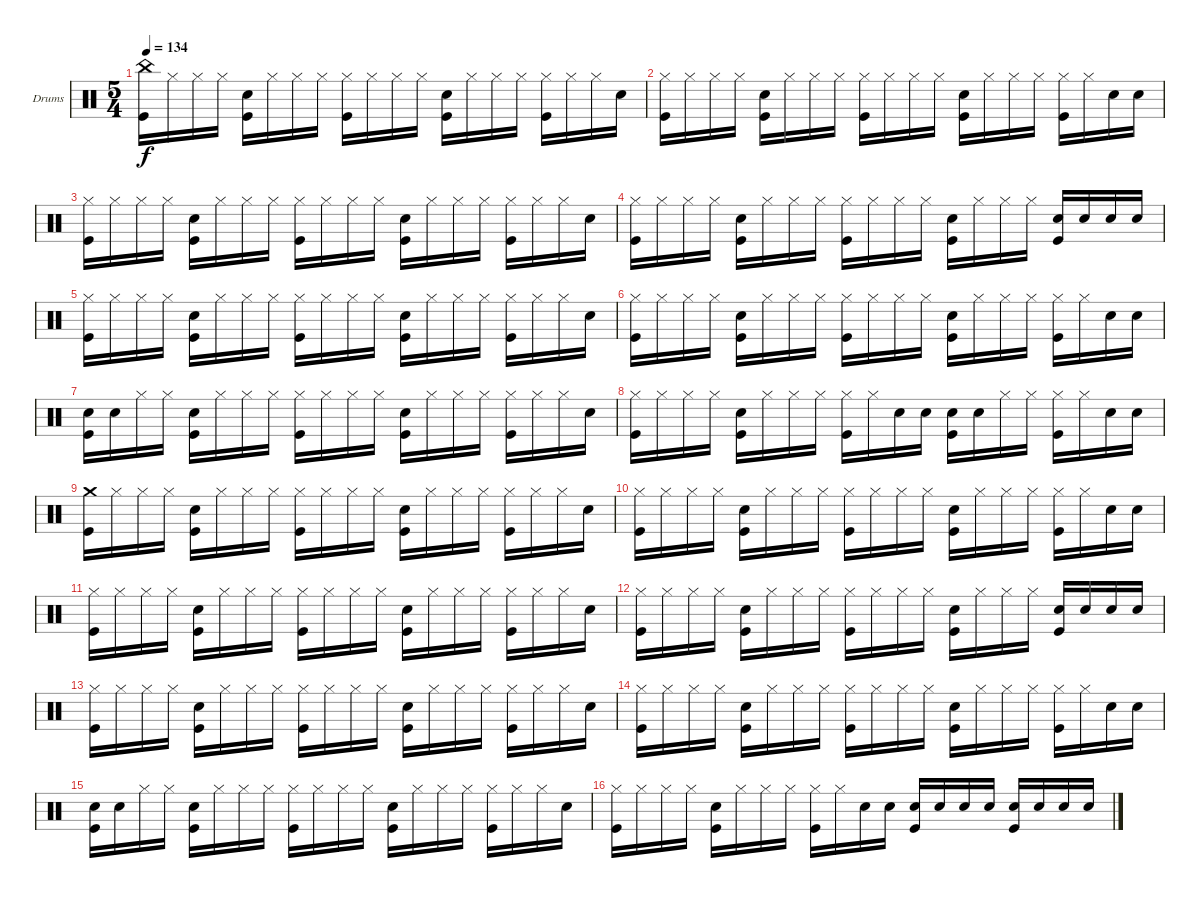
\bracketExtendMode groupsimilarinstruments
\firstSystemTrackNameOrientation horizontal
\otherSystemsTrackNameOrientation horizontal
\track ("Drumkit" "Drums") {instrument percussion}
\staff {score}
\articulation defaults
\ts (5 4)
\tempo 134
\clef neutral
\ks c
("China (hit)" "Kick (hit)").16{dy f} "Hi-Hat (closed)".16 "Hi-Hat (closed)".16 "Hi-Hat (closed)".16 ("Snare (hit) 2" "Kick (hit)").16 "Hi-Hat (closed)".16 "Hi-Hat (closed)".16 "Hi-Hat (closed)".16 ("Hi-Hat (closed)" "Kick (hit)").16 "Hi-Hat (closed)".16 "Hi-Hat (closed)".16 "Hi-Hat (closed)".16 ("Snare (hit) 2" "Kick (hit)").16 "Hi-Hat (closed)".16 "Hi-Hat (closed)".16 "Hi-Hat (closed)".16 ("Hi-Hat (closed)" "Kick (hit)").16 "Hi-Hat (closed)".16 "Hi-Hat (closed)".16 "Snare (hit) 2".16 |
("Kick (hit)" "Hi-Hat (closed)").16 "Hi-Hat (closed)".16 "Hi-Hat (closed)".16 "Hi-Hat (closed)".16 ("Snare (hit) 2" "Kick (hit)").16 "Hi-Hat (closed)".16 "Hi-Hat (closed)".16 "Hi-Hat (closed)".16 ("Hi-Hat (closed)" "Kick (hit)").16 "Hi-Hat (closed)".16 "Hi-Hat (closed)".16 "Hi-Hat (closed)".16 ("Snare (hit) 2" "Kick (hit)").16 "Hi-Hat (closed)".16 "Hi-Hat (closed)".16 "Hi-Hat (closed)".16 ("Hi-Hat (closed)" "Kick (hit)").16 "Hi-Hat (closed)".16 "Snare (hit) 2".16 "Snare (hit) 2".16 |
("Hi-Hat (closed)" "Kick (hit)").16 "Hi-Hat (closed)".16 "Hi-Hat (closed)".16 "Hi-Hat (closed)".16 ("Snare (hit) 2" "Kick (hit)").16 "Hi-Hat (closed)".16 "Hi-Hat (closed)".16 "Hi-Hat (closed)".16 ("Hi-Hat (closed)" "Kick (hit)").16 "Hi-Hat (closed)".16 "Hi-Hat (closed)".16 "Hi-Hat (closed)".16 ("Snare (hit) 2" "Kick (hit)").16 "Hi-Hat (closed)".16 "Hi-Hat (closed)".16 "Hi-Hat (closed)".16 ("Hi-Hat (closed)" "Kick (hit)").16 "Hi-Hat (closed)".16 "Hi-Hat (closed)".16 "Snare (hit) 2".16 |
("Hi-Hat (closed)" "Kick (hit)").16 "Hi-Hat (closed)".16 "Hi-Hat (closed)".16 "Hi-Hat (closed)".16 ("Snare (hit) 2" "Kick (hit)").16 "Hi-Hat (closed)".16 "Hi-Hat (closed)".16 "Hi-Hat (closed)".16 ("Hi-Hat (closed)" "Kick (hit)").16 "Hi-Hat (closed)".16 "Hi-Hat (closed)".16 "Hi-Hat (closed)".16 ("Snare (hit) 2" "Kick (hit)").16 "Hi-Hat (closed)".16 "Hi-Hat (closed)".16 "Hi-Hat (closed)".16 ("Snare (hit) 2" "Kick (hit)").16 "Snare (hit) 2".16 "Snare (hit) 2".16 "Snare (hit) 2".16 |
("Hi-Hat (closed)" "Kick (hit)").16 "Hi-Hat (closed)".16 "Hi-Hat (closed)".16 "Hi-Hat (closed)".16 ("Snare (hit) 2" "Kick (hit)").16 "Hi-Hat (closed)".16 "Hi-Hat (closed)".16 "Hi-Hat (closed)".16 ("Kick (hit)" "Hi-Hat (closed)").16 "Hi-Hat (closed)".16 "Hi-Hat (closed)".16 "Hi-Hat (closed)".16 ("Snare (hit) 2" "Kick (hit)").16 "Hi-Hat (closed)".16 "Hi-Hat (closed)".16 "Hi-Hat (closed)".16 ("Kick (hit)" "Hi-Hat (closed)").16 "Hi-Hat (closed)".16 "Hi-Hat (closed)".16 "Snare (hit) 2".16 |
("Hi-Hat (closed)" "Kick (hit)").16 "Hi-Hat (closed)".16 "Hi-Hat (closed)".16 "Hi-Hat (closed)".16 ("Snare (hit) 2" "Kick (hit)").16 "Hi-Hat (closed)".16 "Hi-Hat (closed)".16 "Hi-Hat (closed)".16 ("Kick (hit)" "Hi-Hat (closed)").16 "Hi-Hat (closed)".16 "Hi-Hat (closed)".16 "Hi-Hat (closed)".16 ("Snare (hit) 2" "Kick (hit)").16 "Hi-Hat (closed)".16 "Hi-Hat (closed)".16 "Hi-Hat (closed)".16 ("Kick (hit)" "Hi-Hat (closed)").16 "Hi-Hat (closed)".16 "Snare (hit) 2".16 "Snare (hit) 2".16 |
("Snare (hit) 2" "Kick (hit)").16 "Snare (hit) 2".16 "Hi-Hat (closed)".16 "Hi-Hat (closed)".16 ("Snare (hit) 2" "Kick (hit)").16 "Hi-Hat (closed)".16 "Hi-Hat (closed)".16 "Hi-Hat (closed)".16 ("Kick (hit)" "Hi-Hat (closed)").16 "Hi-Hat (closed)".16 "Hi-Hat (closed)".16 "Hi-Hat (closed)".16 ("Snare (hit) 2" "Kick (hit)").16 "Hi-Hat (closed)".16 "Hi-Hat (closed)".16 "Hi-Hat (closed)".16 ("Kick (hit)" "Hi-Hat (closed)").16 "Hi-Hat (closed)".16 "Hi-Hat (closed)".16 "Snare (hit) 2".16 |
("Kick (hit)" "Hi-Hat (closed)").16 "Hi-Hat (closed)".16 "Hi-Hat (closed)".16 "Hi-Hat (closed)".16 ("Snare (hit) 2" "Kick (hit)").16 "Hi-Hat (closed)".16 "Hi-Hat (closed)".16 "Hi-Hat (closed)".16 ("Kick (hit)" "Hi-Hat (closed)").16 "Hi-Hat (closed)".16 "Snare (hit) 2".16 "Snare (hit) 2".16 ("Snare (hit) 2" "Kick (hit)").16 "Snare (hit) 2".16 "Hi-Hat (closed)".16 "Hi-Hat (closed)".16 ("Hi-Hat (closed)" "Kick (hit)").16 "Hi-Hat (closed)".16 "Snare (hit) 2".16 "Snare (hit) 2".16 |
("Kick (hit)" "Crash medium (hit)").16 "Hi-Hat (closed)".16 "Hi-Hat (closed)".16 "Hi-Hat (closed)".16 ("Snare (hit) 2" "Kick (hit)").16 "Hi-Hat (closed)".16 "Hi-Hat (closed)".16 "Hi-Hat (closed)".16 ("Kick (hit)" "Hi-Hat (closed)").16 "Hi-Hat (closed)".16 "Hi-Hat (closed)".16 "Hi-Hat (closed)".16 ("Snare (hit) 2" "Kick (hit)").16 "Hi-Hat (closed)".16 "Hi-Hat (closed)".16 "Hi-Hat (closed)".16 ("Kick (hit)" "Hi-Hat (closed)").16 "Hi-Hat (closed)".16 "Hi-Hat (closed)".16 "Snare (hit) 2".16 |
("Hi-Hat (closed)" "Kick (hit)").16 "Hi-Hat (closed)".16 "Hi-Hat (closed)".16 "Hi-Hat (closed)".16 ("Snare (hit) 2" "Kick (hit)").16 "Hi-Hat (closed)".16 "Hi-Hat (closed)".16 "Hi-Hat (closed)".16 ("Kick (hit)" "Hi-Hat (closed)").16 "Hi-Hat (closed)".16 "Hi-Hat (closed)".16 "Hi-Hat (closed)".16 ("Snare (hit) 2" "Kick (hit)").16 "Hi-Hat (closed)".16 "Hi-Hat (closed)".16 "Hi-Hat (closed)".16 ("Kick (hit)" "Hi-Hat (closed)").16 "Hi-Hat (closed)".16 "Snare (hit) 2".16 "Snare (hit) 2".16 |
("Kick (hit)" "Hi-Hat (closed)").16 "Hi-Hat (closed)".16 "Hi-Hat (closed)".16 "Hi-Hat (closed)".16 ("Snare (hit) 2" "Kick (hit)").16 "Hi-Hat (closed)".16 "Hi-Hat (closed)".16 "Hi-Hat (closed)".16 ("Kick (hit)" "Hi-Hat (closed)").16 "Hi-Hat (closed)".16 "Hi-Hat (closed)".16 "Hi-Hat (closed)".16 ("Snare (hit) 2" "Kick (hit)").16 "Hi-Hat (closed)".16 "Hi-Hat (closed)".16 "Hi-Hat (closed)".16 ("Kick (hit)" "Hi-Hat (closed)").16 "Hi-Hat (closed)".16 "Hi-Hat (closed)".16 "Snare (hit) 2".16 |
("Kick (hit)" "Hi-Hat (closed)").16 "Hi-Hat (closed)".16 "Hi-Hat (closed)".16 "Hi-Hat (closed)".16 ("Snare (hit) 2" "Kick (hit)").16 "Hi-Hat (closed)".16 "Hi-Hat (closed)".16 "Hi-Hat (closed)".16 ("Kick (hit)" "Hi-Hat (closed)").16 "Hi-Hat (closed)".16 "Hi-Hat (closed)".16 "Hi-Hat (closed)".16 ("Snare (hit) 2" "Kick (hit)").16 "Hi-Hat (closed)".16 "Hi-Hat (closed)".16 "Hi-Hat (closed)".16 ("Snare (hit) 2" "Kick (hit)").16 "Snare (hit) 2".16 "Snare (hit) 2".16 "Snare (hit) 2".16 |
("Kick (hit)" "Hi-Hat (closed)").16 "Hi-Hat (closed)".16 "Hi-Hat (closed)".16 "Hi-Hat (closed)".16 ("Snare (hit) 2" "Kick (hit)").16 "Hi-Hat (closed)".16 "Hi-Hat (closed)".16 "Hi-Hat (closed)".16 ("Hi-Hat (closed)" "Kick (hit)").16 "Hi-Hat (closed)".16 "Hi-Hat (closed)".16 "Hi-Hat (closed)".16 ("Snare (hit) 2" "Kick (hit)").16 "Hi-Hat (closed)".16 "Hi-Hat (closed)".16 "Hi-Hat (closed)".16 ("Hi-Hat (closed)" "Kick (hit)").16 "Hi-Hat (closed)".16 "Hi-Hat (closed)".16 "Snare (hit) 2".16 |
("Kick (hit)" "Hi-Hat (closed)").16 "Hi-Hat (closed)".16 "Hi-Hat (closed)".16 "Hi-Hat (closed)".16 ("Snare (hit) 2" "Kick (hit)").16 "Hi-Hat (closed)".16 "Hi-Hat (closed)".16 "Hi-Hat (closed)".16 ("Hi-Hat (closed)" "Kick (hit)").16 "Hi-Hat (closed)".16 "Hi-Hat (closed)".16 "Hi-Hat (closed)".16 ("Snare (hit) 2" "Kick (hit)").16 "Hi-Hat (closed)".16 "Hi-Hat (closed)".16 "Hi-Hat (closed)".16 ("Hi-Hat (closed)" "Kick (hit)").16 "Hi-Hat (closed)".16 "Snare (hit) 2".16 "Snare (hit) 2".16 |
("Snare (hit) 2" "Kick (hit)").16 "Snare (hit) 2".16 "Hi-Hat (closed)".16 "Hi-Hat (closed)".16 ("Snare (hit) 2" "Kick (hit)").16 "Hi-Hat (closed)".16 "Hi-Hat (closed)".16 "Hi-Hat (closed)".16 ("Hi-Hat (closed)" "Kick (hit)").16 "Hi-Hat (closed)".16 "Hi-Hat (closed)".16 "Hi-Hat (closed)".16 ("Snare (hit) 2" "Kick (hit)").16 "Hi-Hat (closed)".16 "Hi-Hat (closed)".16 "Hi-Hat (closed)".16 ("Hi-Hat (closed)" "Kick (hit)").16 "Hi-Hat (closed)".16 "Hi-Hat (closed)".16 "Snare (hit) 2".16 |
("Hi-Hat (closed)" "Kick (hit)").16 "Hi-Hat (closed)".16 "Hi-Hat (closed)".16 "Hi-Hat (closed)".16 ("Snare (hit) 2" "Kick (hit)").16 "Hi-Hat (closed)".16 "Hi-Hat (closed)".16 "Hi-Hat (closed)".16 ("Hi-Hat (closed)" "Kick (hit)").16 "Hi-Hat (closed)".16 "Snare (hit) 2".16 "Snare (hit) 2".16 ("Snare (hit) 2" "Kick (hit)").16 "Snare (hit) 2".16 "Snare (hit) 2".16 "Snare (hit) 2".16 ("Snare (hit) 2" "Kick (hit)").16 "Snare (hit) 2".16 "Snare (hit) 2".16 "Snare (hit) 2".16
